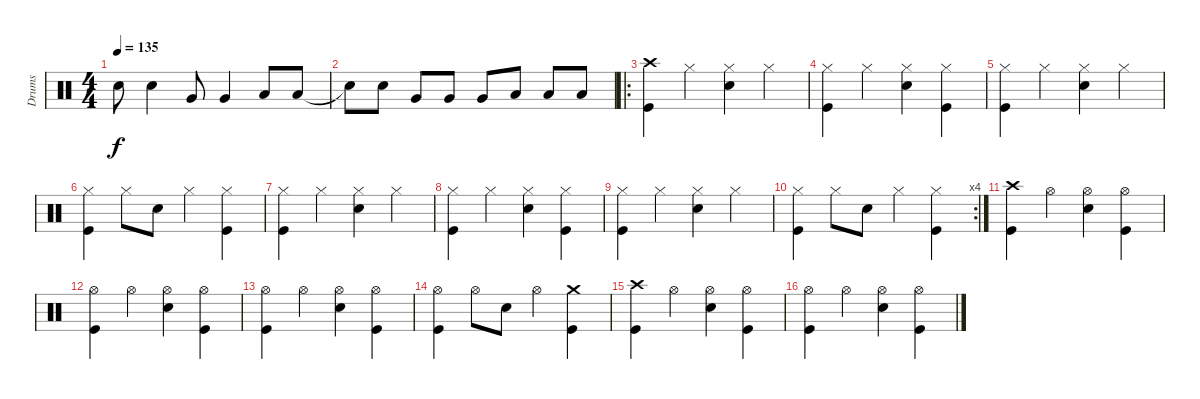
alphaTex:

\track ("Drums" "Drums") {instrument percussion}
\staff {score}
\articulation defaults
\ts (4 4)
\tempo 135
\clef neutral
\ks c "Snare (hit) 2".8{dy f} "Snare (hit) 2".4 "Very Low Tom (hit)".8 "Very Low Tom (hit)".4 "Low Floor Tom (hit)".8 "Low Floor Tom (hit)".8
|
"Snare (hit)"{t}.8 "Snare (hit) 2".8 "Very Low Tom (hit)".8 "Very Low Tom (hit)".8 "Very Low Tom (hit)".8 "Low Floor Tom (hit)".8 "Low Floor Tom (hit)".8 "Low Floor Tom (hit)".8 |
\ro
("Kick (hit)" "Crash high (hit)").4 "Hi-Hat (closed)".4 ("Hi-Hat (closed)" "Snare (hit) 2").4 "Hi-Hat (closed)".4 |
("Kick (hit)" "Hi-Hat (closed)").4 "Hi-Hat (closed)".4 ("Hi-Hat (closed)" "Snare (hit) 2").4 ("Kick (hit)" "Hi-Hat (closed)").4 |
("Kick (hit)" "Hi-Hat (closed)").4 "Hi-Hat (closed)".4 ("Hi-Hat (closed)" "Snare (hit) 2").4 "Hi-Hat (closed)".4 |
("Kick (hit)" "Hi-Hat (closed)").4 "Hi-Hat (closed)".8 "Snare (hit) 2".8 "Hi-Hat (closed)".4 ("Kick (hit)" "Hi-Hat (closed)").4 |
("Kick (hit)" "Hi-Hat (closed)").4 "Hi-Hat (closed)".4 ("Hi-Hat (closed)" "Snare (hit) 2").4 "Hi-Hat (closed)".4 |
("Kick (hit)" "Hi-Hat (closed)").4 "Hi-Hat (closed)".4 ("Hi-Hat (closed)" "Snare (hit) 2").4 ("Kick (hit)" "Hi-Hat (closed)").4 |
("Kick (hit)" "Hi-Hat (closed)").4 "Hi-Hat (closed)".4 ("Hi-Hat (closed)" "Snare (hit) 2").4 "Hi-Hat (closed)".4 |
\rc 4
("Kick (hit)" "Hi-Hat (closed)").4 "Hi-Hat (closed)".8 "Snare (hit) 2".8 "Hi-Hat (closed)".4 ("Kick (hit)" "Hi-Hat (closed)").4 |
("Kick (hit)" "Crash high (hit)").4 "Hi-Hat (open)".4 ("Hi-Hat (open)" "Snare (hit) 2").4 ("Kick (hit)" "Hi-Hat (open)").4 |
("Kick (hit)" "Hi-Hat (open)").4 "Hi-Hat (open)".4 ("Hi-Hat (open)" "Snare (hit) 2").4 ("Kick (hit)" "Hi-Hat (open)").4 |
("Kick (hit)" "Hi-Hat (open)").4 "Hi-Hat (open)".4 ("Hi-Hat (open)" "Snare (hit) 2").4 ("Kick (hit)" "Hi-Hat (open)").4 |
("Kick (hit)" "Hi-Hat (open)").4 "Hi-Hat (open)".8 "Snare (hit) 2".8 "Hi-Hat (open)".4 ("Kick (hit)" "Crash medium (hit)").4 |
("Kick (hit)" "Crash high (hit)").4 "Hi-Hat (open)".4 ("Hi-Hat (open)" "Snare (hit) 2").4 ("Kick (hit)" "Hi-Hat (open)").4 |
("Kick (hit)" "Hi-Hat (open)").4 "Hi-Hat (open)".4 ("Hi-Hat (open)" "Snare (hit) 2").4 ("Kick (hit)" "Hi-Hat (open)").4
